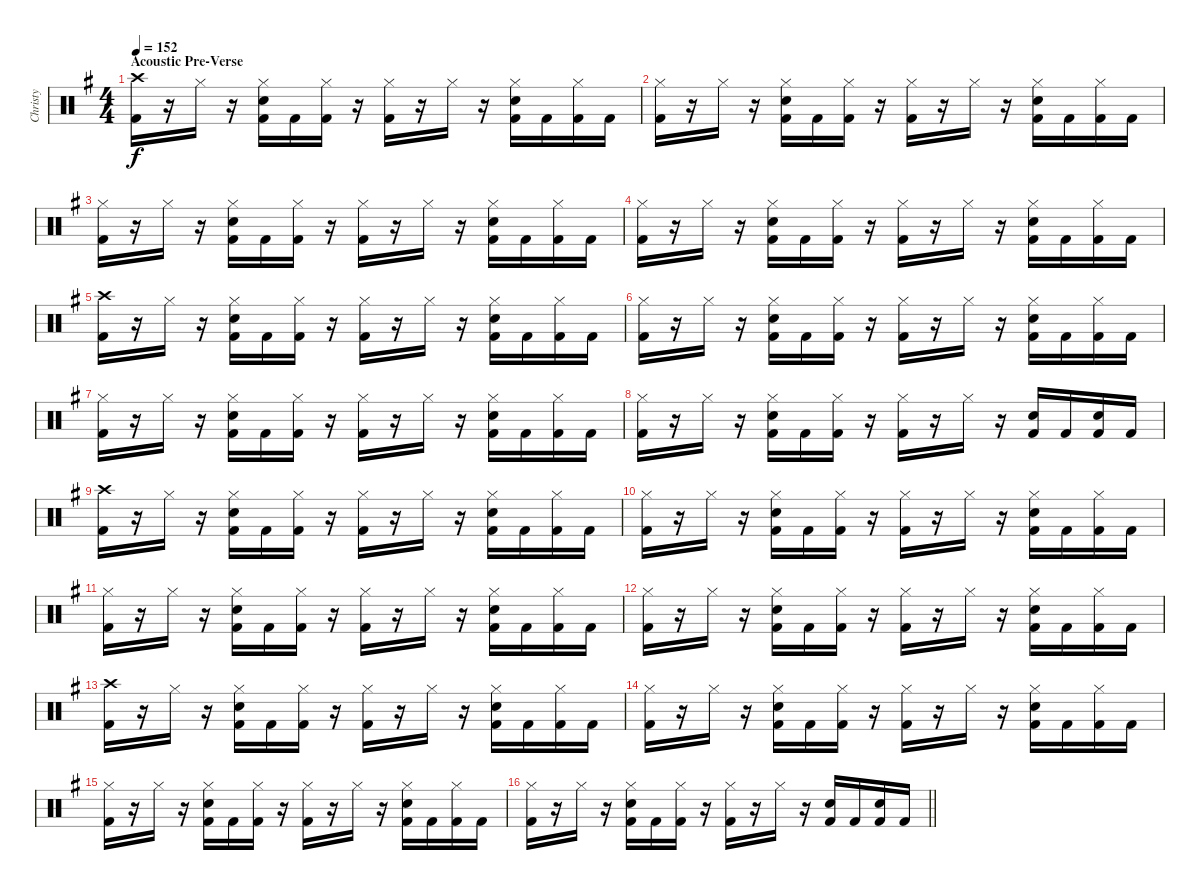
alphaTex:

\track ("Christy" "Christy") {instrument percussion}
\staff {score}
\articulation defaults
\ts (4 4)
\section ("" "Acoustic Pre-Verse")
\tempo 152
\clef neutral
\ks g
("Crash high (hit)" "Kick (hit) 2").16{dy f} r.16 "Hi-Hat (closed)".16 r.16 ("Hi-Hat (closed)" "Snare (hit) 2" "Kick (hit) 2").16 "Kick (hit) 2".16 ("Hi-Hat (closed)" "Kick (hit) 2").16 r.16 ("Hi-Hat (closed)" "Kick (hit) 2").16 r.16 "Hi-Hat (closed)".16 r.16 ("Hi-Hat (closed)" "Snare (hit) 2" "Kick (hit) 2").16 "Kick (hit) 2".16 ("Hi-Hat (closed)" "Kick (hit) 2").16 "Kick (hit) 2".16 |
("Hi-Hat (closed)" "Kick (hit) 2").16 r.16 "Hi-Hat (closed)".16 r.16 ("Hi-Hat (closed)" "Snare (hit) 2" "Kick (hit) 2").16 "Kick (hit) 2".16 ("Hi-Hat (closed)" "Kick (hit) 2").16 r.16 ("Hi-Hat (closed)" "Kick (hit) 2").16 r.16 "Hi-Hat (closed)".16 r.16 ("Hi-Hat (closed)" "Snare (hit) 2" "Kick (hit) 2").16 "Kick (hit) 2".16 ("Hi-Hat (closed)" "Kick (hit) 2").16 "Kick (hit) 2".16 |
("Hi-Hat (closed)" "Kick (hit) 2").16 r.16 "Hi-Hat (closed)".16 r.16 ("Hi-Hat (closed)" "Snare (hit) 2" "Kick (hit) 2").16 "Kick (hit) 2".16 ("Hi-Hat (closed)" "Kick (hit) 2").16 r.16 ("Hi-Hat (closed)" "Kick (hit) 2").16 r.16 "Hi-Hat (closed)".16 r.16 ("Hi-Hat (closed)" "Snare (hit) 2" "Kick (hit) 2").16 "Kick (hit) 2".16 ("Hi-Hat (closed)" "Kick (hit) 2").16 "Kick (hit) 2".16 |
("Hi-Hat (closed)" "Kick (hit) 2").16 r.16 "Hi-Hat (closed)".16 r.16 ("Hi-Hat (closed)" "Snare (hit) 2" "Kick (hit) 2").16 "Kick (hit) 2".16 ("Hi-Hat (closed)" "Kick (hit) 2").16 r.16 ("Hi-Hat (closed)" "Kick (hit) 2").16 r.16 "Hi-Hat (closed)".16 r.16 ("Hi-Hat (closed)" "Snare (hit) 2" "Kick (hit) 2").16 "Kick (hit) 2".16 ("Hi-Hat (closed)" "Kick (hit) 2").16 "Kick (hit) 2".16 |
("Crash high (hit)" "Kick (hit) 2").16 r.16 "Hi-Hat (closed)".16 r.16 ("Hi-Hat (closed)" "Snare (hit) 2" "Kick (hit) 2").16 "Kick (hit) 2".16 ("Hi-Hat (closed)" "Kick (hit) 2").16 r.16 ("Hi-Hat (closed)" "Kick (hit) 2").16 r.16 "Hi-Hat (closed)".16 r.16 ("Hi-Hat (closed)" "Snare (hit) 2" "Kick (hit) 2").16 "Kick (hit) 2".16 ("Hi-Hat (closed)" "Kick (hit) 2").16 "Kick (hit) 2".16 |
("Hi-Hat (closed)" "Kick (hit) 2").16 r.16 "Hi-Hat (closed)".16 r.16 ("Hi-Hat (closed)" "Snare (hit) 2" "Kick (hit) 2").16 "Kick (hit) 2".16 ("Hi-Hat (closed)" "Kick (hit) 2").16 r.16 ("Hi-Hat (closed)" "Kick (hit) 2").16 r.16 "Hi-Hat (closed)".16 r.16 ("Hi-Hat (closed)" "Snare (hit) 2" "Kick (hit) 2").16 "Kick (hit) 2".16 ("Hi-Hat (closed)" "Kick (hit) 2").16 "Kick (hit) 2".16 |
("Hi-Hat (closed)" "Kick (hit) 2").16 r.16 "Hi-Hat (closed)".16 r.16 ("Hi-Hat (closed)" "Snare (hit) 2" "Kick (hit) 2").16 "Kick (hit) 2".16 ("Hi-Hat (closed)" "Kick (hit) 2").16 r.16 ("Hi-Hat (closed)" "Kick (hit) 2").16 r.16 "Hi-Hat (closed)".16 r.16 ("Hi-Hat (closed)" "Snare (hit) 2" "Kick (hit) 2").16 "Kick (hit) 2".16 ("Hi-Hat (closed)" "Kick (hit) 2").16 "Kick (hit) 2".16 |
("Hi-Hat (closed)" "Kick (hit) 2").16 r.16 "Hi-Hat (closed)".16 r.16 ("Hi-Hat (closed)" "Snare (hit) 2" "Kick (hit) 2").16 "Kick (hit) 2".16 ("Hi-Hat (closed)" "Kick (hit) 2").16 r.16 ("Hi-Hat (closed)" "Kick (hit) 2").16 r.16 "Hi-Hat (closed)".16 r.16 ("Snare (hit) 2" "Kick (hit) 2").16 "Kick (hit) 2".16 ("Snare (hit) 2" "Kick (hit) 2").16 "Kick (hit) 2".16 |
("Crash high (hit)" "Kick (hit) 2").16 r.16 "Hi-Hat (closed)".16 r.16 ("Hi-Hat (closed)" "Snare (hit) 2" "Kick (hit) 2").16 "Kick (hit) 2".16 ("Hi-Hat (closed)" "Kick (hit) 2").16 r.16 ("Hi-Hat (closed)" "Kick (hit) 2").16 r.16 "Hi-Hat (closed)".16 r.16 ("Hi-Hat (closed)" "Snare (hit) 2" "Kick (hit) 2").16 "Kick (hit) 2".16 ("Hi-Hat (closed)" "Kick (hit) 2").16 "Kick (hit) 2".16 |
("Hi-Hat (closed)" "Kick (hit) 2").16 r.16 "Hi-Hat (closed)".16 r.16 ("Hi-Hat (closed)" "Snare (hit) 2" "Kick (hit) 2").16 "Kick (hit) 2".16 ("Hi-Hat (closed)" "Kick (hit) 2").16 r.16 ("Hi-Hat (closed)" "Kick (hit) 2").16 r.16 "Hi-Hat (closed)".16 r.16 ("Hi-Hat (closed)" "Snare (hit) 2" "Kick (hit) 2").16 "Kick (hit) 2".16 ("Hi-Hat (closed)" "Kick (hit) 2").16 "Kick (hit) 2".16 |
("Hi-Hat (closed)" "Kick (hit) 2").16 r.16 "Hi-Hat (closed)".16 r.16 ("Hi-Hat (closed)" "Snare (hit) 2" "Kick (hit) 2").16 "Kick (hit) 2".16 ("Hi-Hat (closed)" "Kick (hit) 2").16 r.16 ("Hi-Hat (closed)" "Kick (hit) 2").16 r.16 "Hi-Hat (closed)".16 r.16 ("Hi-Hat (closed)" "Snare (hit) 2" "Kick (hit) 2").16 "Kick (hit) 2".16 ("Hi-Hat (closed)" "Kick (hit) 2").16 "Kick (hit) 2".16 |
("Hi-Hat (closed)" "Kick (hit) 2").16 r.16 "Hi-Hat (closed)".16 r.16 ("Hi-Hat (closed)" "Snare (hit) 2" "Kick (hit) 2").16 "Kick (hit) 2".16 ("Hi-Hat (closed)" "Kick (hit) 2").16 r.16 ("Hi-Hat (closed)" "Kick (hit) 2").16 r.16 "Hi-Hat (closed)".16 r.16 ("Hi-Hat (closed)" "Snare (hit) 2" "Kick (hit) 2").16 "Kick (hit) 2".16 ("Hi-Hat (closed)" "Kick (hit) 2").16 "Kick (hit) 2".16 |
("Crash high (hit)" "Kick (hit) 2").16 r.16 "Hi-Hat (closed)".16 r.16 ("Hi-Hat (closed)" "Snare (hit) 2" "Kick (hit) 2").16 "Kick (hit) 2".16 ("Hi-Hat (closed)" "Kick (hit) 2").16 r.16 ("Hi-Hat (closed)" "Kick (hit) 2").16 r.16 "Hi-Hat (closed)".16 r.16 ("Hi-Hat (closed)" "Snare (hit) 2" "Kick (hit) 2").16 "Kick (hit) 2".16 ("Hi-Hat (closed)" "Kick (hit) 2").16 "Kick (hit) 2".16 |
("Hi-Hat (closed)" "Kick (hit) 2").16 r.16 "Hi-Hat (closed)".16 r.16 ("Hi-Hat (closed)" "Snare (hit) 2" "Kick (hit) 2").16 "Kick (hit) 2".16 ("Hi-Hat (closed)" "Kick (hit) 2").16 r.16 ("Hi-Hat (closed)" "Kick (hit) 2").16 r.16 "Hi-Hat (closed)".16 r.16 ("Hi-Hat (closed)" "Snare (hit) 2" "Kick (hit) 2").16 "Kick (hit) 2".16 ("Hi-Hat (closed)" "Kick (hit) 2").16 "Kick (hit) 2".16 |
("Hi-Hat (closed)" "Kick (hit) 2").16 r.16 "Hi-Hat (closed)".16 r.16 ("Hi-Hat (closed)" "Snare (hit) 2" "Kick (hit) 2").16 "Kick (hit) 2".16 ("Hi-Hat (closed)" "Kick (hit) 2").16 r.16 ("Hi-Hat (closed)" "Kick (hit) 2").16 r.16 "Hi-Hat (closed)".16 r.16 ("Hi-Hat (closed)" "Snare (hit) 2" "Kick (hit) 2").16 "Kick (hit) 2".16 ("Hi-Hat (closed)" "Kick (hit) 2").16 "Kick (hit) 2".16 |
\barLineRight lightlight
("Hi-Hat (closed)" "Kick (hit) 2").16 r.16 "Hi-Hat (closed)".16 r.16 ("Hi-Hat (closed)" "Snare (hit) 2" "Kick (hit) 2").16 "Kick (hit) 2".16 ("Hi-Hat (closed)" "Kick (hit) 2").16 r.16 ("Hi-Hat (closed)" "Kick (hit) 2").16 r.16 "Hi-Hat (closed)".16 r.16 ("Snare (hit) 2" "Kick (hit) 2").16 "Kick (hit) 2".16 ("Snare (hit) 2" "Kick (hit) 2").16 "Kick (hit) 2".16
